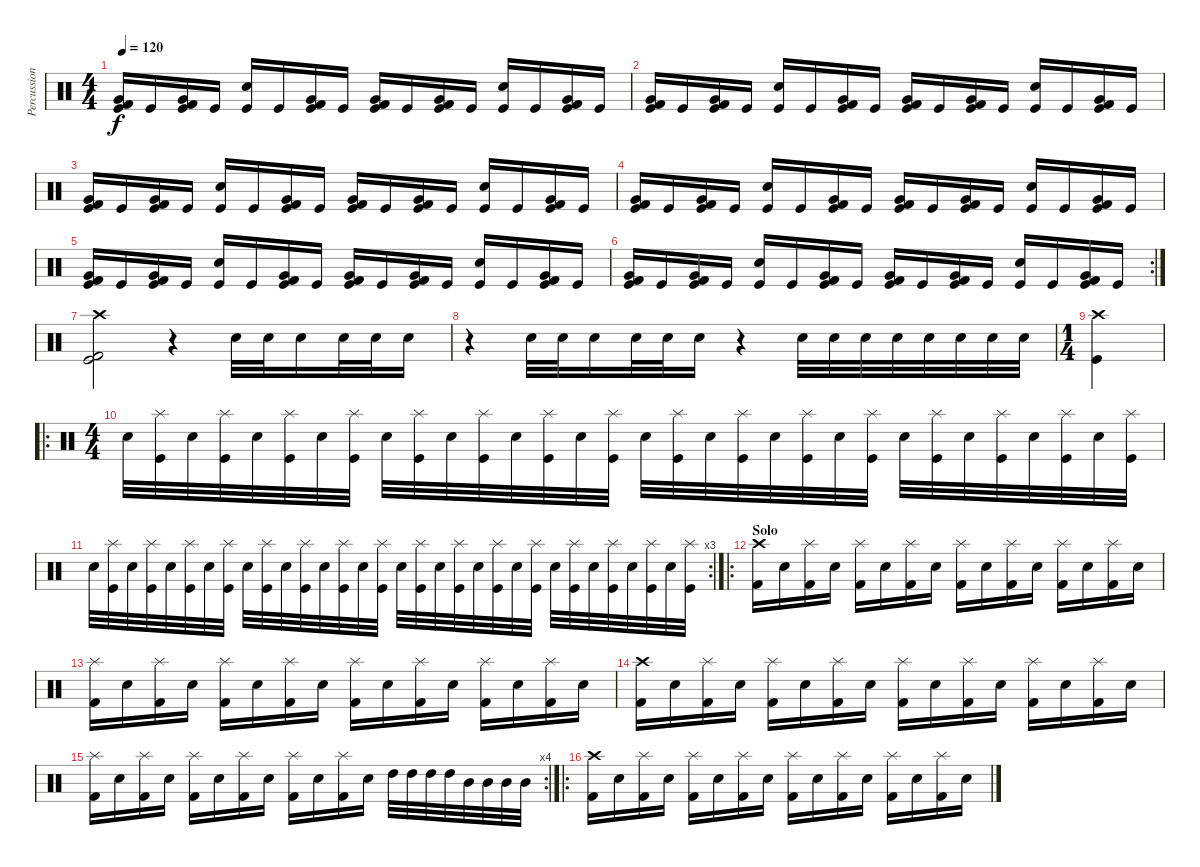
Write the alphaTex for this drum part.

\track ("Percussion" "Percussion") {instrument percussion}
\staff {score}
\articulation defaults
\ts (4 4)
\tempo 120
\clef neutral
\ks c
("Very Low Tom (hit)" "Kick (hit) 2" "Kick (hit)").16{dy f} "Kick (hit)".16 ("Very Low Tom (hit)" "Kick (hit) 2" "Kick (hit)").16 "Kick (hit)".16 ("Electric Snare (hit)" "Kick (hit)").16 "Kick (hit)".16 ("Very Low Tom (hit)" "Kick (hit) 2" "Kick (hit)").16 "Kick (hit)".16 ("Very Low Tom (hit)" "Kick (hit) 2" "Kick (hit)").16 "Kick (hit)".16 ("Very Low Tom (hit)" "Kick (hit) 2" "Kick (hit)").16 "Kick (hit)".16 ("Electric Snare (hit)" "Kick (hit)").16 "Kick (hit)".16 ("Very Low Tom (hit)" "Kick (hit) 2" "Kick (hit)").16 "Kick (hit)".16 |
("Very Low Tom (hit)" "Kick (hit) 2" "Kick (hit)").16 "Kick (hit)".16 ("Very Low Tom (hit)" "Kick (hit) 2" "Kick (hit)").16 "Kick (hit)".16 ("Electric Snare (hit)" "Kick (hit)").16 "Kick (hit)".16 ("Very Low Tom (hit)" "Kick (hit) 2" "Kick (hit)").16 "Kick (hit)".16 ("Very Low Tom (hit)" "Kick (hit) 2" "Kick (hit)").16 "Kick (hit)".16 ("Very Low Tom (hit)" "Kick (hit) 2" "Kick (hit)").16 "Kick (hit)".16 ("Electric Snare (hit)" "Kick (hit)").16 "Kick (hit)".16 ("Very Low Tom (hit)" "Kick (hit) 2" "Kick (hit)").16 "Kick (hit)".16 |
("Very Low Tom (hit)" "Kick (hit) 2" "Kick (hit)").16 "Kick (hit)".16 ("Very Low Tom (hit)" "Kick (hit) 2" "Kick (hit)").16 "Kick (hit)".16 ("Electric Snare (hit)" "Kick (hit)").16 "Kick (hit)".16 ("Very Low Tom (hit)" "Kick (hit) 2" "Kick (hit)").16 "Kick (hit)".16 ("Very Low Tom (hit)" "Kick (hit) 2" "Kick (hit)").16 "Kick (hit)".16 ("Very Low Tom (hit)" "Kick (hit) 2" "Kick (hit)").16 "Kick (hit)".16 ("Electric Snare (hit)" "Kick (hit)").16 "Kick (hit)".16 ("Very Low Tom (hit)" "Kick (hit) 2" "Kick (hit)").16 "Kick (hit)".16 |
("Very Low Tom (hit)" "Kick (hit) 2" "Kick (hit)").16 "Kick (hit)".16 ("Very Low Tom (hit)" "Kick (hit) 2" "Kick (hit)").16 "Kick (hit)".16 ("Electric Snare (hit)" "Kick (hit)").16 "Kick (hit)".16 ("Very Low Tom (hit)" "Kick (hit) 2" "Kick (hit)").16 "Kick (hit)".16 ("Very Low Tom (hit)" "Kick (hit) 2" "Kick (hit)").16 "Kick (hit)".16 ("Very Low Tom (hit)" "Kick (hit) 2" "Kick (hit)").16 "Kick (hit)".16 ("Electric Snare (hit)" "Kick (hit)").16 "Kick (hit)".16 ("Very Low Tom (hit)" "Kick (hit) 2" "Kick (hit)").16 "Kick (hit)".16 |
("Very Low Tom (hit)" "Kick (hit) 2" "Kick (hit)").16 "Kick (hit)".16 ("Very Low Tom (hit)" "Kick (hit) 2" "Kick (hit)").16 "Kick (hit)".16 ("Electric Snare (hit)" "Kick (hit)").16 "Kick (hit)".16 ("Very Low Tom (hit)" "Kick (hit) 2" "Kick (hit)").16 "Kick (hit)".16 ("Very Low Tom (hit)" "Kick (hit) 2" "Kick (hit)").16 "Kick (hit)".16 ("Very Low Tom (hit)" "Kick (hit) 2" "Kick (hit)").16 "Kick (hit)".16 ("Electric Snare (hit)" "Kick (hit)").16 "Kick (hit)".16 ("Very Low Tom (hit)" "Kick (hit) 2" "Kick (hit)").16 "Kick (hit)".16 |
\rc 2
("Very Low Tom (hit)" "Kick (hit) 2" "Kick (hit)").16 "Kick (hit)".16 ("Very Low Tom (hit)" "Kick (hit) 2" "Kick (hit)").16 "Kick (hit)".16 ("Electric Snare (hit)" "Kick (hit)").16 "Kick (hit)".16 ("Very Low Tom (hit)" "Kick (hit) 2" "Kick (hit)").16 "Kick (hit)".16 ("Very Low Tom (hit)" "Kick (hit) 2" "Kick (hit)").16 "Kick (hit)".16 ("Very Low Tom (hit)" "Kick (hit) 2" "Kick (hit)").16 "Kick (hit)".16 ("Electric Snare (hit)" "Kick (hit)").16 "Kick (hit)".16 ("Very Low Tom (hit)" "Kick (hit) 2" "Kick (hit)").16 "Kick (hit)".16 |
("Crash high (hit)" "Kick (hit) 2" "Kick (hit)").2 r.4 "Electric Snare (hit)".32 "Electric Snare (hit)".32 "Electric Snare (hit)".16 "Electric Snare (hit)".32 "Electric Snare (hit)".32 "Electric Snare (hit)".16 |
r.4 "Electric Snare (hit)".32 "Electric Snare (hit)".32 "Electric Snare (hit)".16 "Electric Snare (hit)".32 "Electric Snare (hit)".32 "Electric Snare (hit)".16 r.4 "Electric Snare (hit)".32 "Electric Snare (hit)".32 "Electric Snare (hit)".32 "Electric Snare (hit)".32 "Electric Snare (hit)".32 "Electric Snare (hit)".32 "Electric Snare (hit)".32 "Electric Snare (hit)".32 |
\ts (1 4)
("Crash high (hit)" "Kick (hit)").4 |
\ro
\ts (4 4)
"Electric Snare (hit)".32 ("Splash (hit)" "Kick (hit)").32 "Electric Snare (hit)".32 ("Splash (hit)" "Kick (hit)").32 "Electric Snare (hit)".32 ("Splash (hit)" "Kick (hit)").32 "Electric Snare (hit)".32 ("Splash (hit)" "Kick (hit)").32 "Electric Snare (hit)".32 ("Splash (hit)" "Kick (hit)").32 "Electric Snare (hit)".32 ("Splash (hit)" "Kick (hit)").32 "Electric Snare (hit)".32 ("Splash (hit)" "Kick (hit)").32 "Electric Snare (hit)".32 ("Splash (hit)" "Kick (hit)").32 "Electric Snare (hit)".32 ("Splash (hit)" "Kick (hit)").32 "Electric Snare (hit)".32 ("Splash (hit)" "Kick (hit)").32 "Electric Snare (hit)".32 ("Splash (hit)" "Kick (hit)").32 "Electric Snare (hit)".32 ("Splash (hit)" "Kick (hit)").32 "Electric Snare (hit)".32 ("Splash (hit)" "Kick (hit)").32 "Electric Snare (hit)".32 ("Splash (hit)" "Kick (hit)").32 "Electric Snare (hit)".32 ("Splash (hit)" "Kick (hit)").32 "Electric Snare (hit)".32 ("Splash (hit)" "Kick (hit)").32 |
\rc 3 "Electric Snare (hit)".32
("Splash (hit)" "Kick (hit)").32 "Electric Snare (hit)".32 ("Splash (hit)" "Kick (hit)").32 "Electric Snare (hit)".32 ("Splash (hit)" "Kick (hit)").32 "Electric Snare (hit)".32 ("Splash (hit)" "Kick (hit)").32 "Electric Snare (hit)".32 ("Splash (hit)" "Kick (hit)").32 "Electric Snare (hit)".32 ("Splash (hit)" "Kick (hit)").32 "Electric Snare (hit)".32 ("Splash (hit)" "Kick (hit)").32 "Electric Snare (hit)".32 ("Splash (hit)" "Kick (hit)").32 "Electric Snare (hit)".32 ("Splash (hit)" "Kick (hit)").32 "Electric Snare (hit)".32 ("Splash (hit)" "Kick (hit)").32 "Electric Snare (hit)".32 ("Splash (hit)" "Kick (hit)").32 "Electric Snare (hit)".32 ("Splash (hit)" "Kick (hit)").32 "Electric Snare (hit)".32 ("Splash (hit)" "Kick (hit)").32 "Electric Snare (hit)".32 ("Splash (hit)" "Kick (hit)").32 "Electric Snare (hit)".32 ("Splash (hit)" "Kick (hit)").32 "Electric Snare (hit)".32 ("Splash (hit)" "Kick (hit)").32 |
\ro
\section ("" "Solo")
("Crash high (hit)" "Kick (hit) 2").16 "Electric Snare (hit)".16 ("Splash (hit)" "Kick (hit) 2").16 "Electric Snare (hit)".16 ("Splash (hit)" "Kick (hit) 2").16 "Electric Snare (hit)".16 ("Splash (hit)" "Kick (hit) 2").16 "Electric Snare (hit)".16 ("Splash (hit)" "Kick (hit) 2").16 "Electric Snare (hit)".16 ("Splash (hit)" "Kick (hit) 2").16 "Electric Snare (hit)".16 ("Splash (hit)" "Kick (hit) 2").16 "Electric Snare (hit)".16 ("Splash (hit)" "Kick (hit) 2").16 "Electric Snare (hit)".16 |
("Splash (hit)" "Kick (hit) 2").16 "Electric Snare (hit)".16 ("Splash (hit)" "Kick (hit) 2").16 "Electric Snare (hit)".16 ("Splash (hit)" "Kick (hit) 2").16 "Electric Snare (hit)".16 ("Splash (hit)" "Kick (hit) 2").16 "Electric Snare (hit)".16 ("Splash (hit)" "Kick (hit) 2").16 "Electric Snare (hit)".16 ("Splash (hit)" "Kick (hit) 2").16 "Electric Snare (hit)".16 ("Splash (hit)" "Kick (hit) 2").16 "Electric Snare (hit)".16 ("Splash (hit)" "Kick (hit) 2").16 "Electric Snare (hit)".16 |
("Crash high (hit)" "Kick (hit) 2").16 "Electric Snare (hit)".16 ("Splash (hit)" "Kick (hit) 2").16 "Electric Snare (hit)".16 ("Splash (hit)" "Kick (hit) 2").16 "Electric Snare (hit)".16 ("Splash (hit)" "Kick (hit) 2").16 "Electric Snare (hit)".16 ("Splash (hit)" "Kick (hit) 2").16 "Electric Snare (hit)".16 ("Splash (hit)" "Kick (hit) 2").16 "Electric Snare (hit)".16 ("Splash (hit)" "Kick (hit) 2").16 "Electric Snare (hit)".16 ("Splash (hit)" "Kick (hit) 2").16 "Electric Snare (hit)".16 |
\rc 4
("Splash (hit)" "Kick (hit) 2").16 "Electric Snare (hit)".16 ("Splash (hit)" "Kick (hit) 2").16 "Electric Snare (hit)".16 ("Splash (hit)" "Kick (hit) 2").16 "Electric Snare (hit)".16 ("Splash (hit)" "Kick (hit) 2").16 "Electric Snare (hit)".16 ("Splash (hit)" "Kick (hit) 2").16 "Electric Snare (hit)".16 ("Splash (hit)" "Kick (hit) 2").16 "Electric Snare (hit)".16 "High Tom (hit)".32 "High Tom (hit)".32 "High Tom (hit)".32 "High Tom (hit)".32 "Mid Tom (hit)".32 "Mid Tom (hit)".32 "Mid Tom (hit)".32 "Mid Tom (hit)".32 |
\ro
("Crash high (hit)" "Kick (hit) 2").16 "Electric Snare (hit)".16 ("Splash (hit)" "Kick (hit) 2").16 "Electric Snare (hit)".16 ("Splash (hit)" "Kick (hit) 2").16 "Electric Snare (hit)".16 ("Splash (hit)" "Kick (hit) 2").16 "Electric Snare (hit)".16 ("Splash (hit)" "Kick (hit) 2").16 "Electric Snare (hit)".16 ("Splash (hit)" "Kick (hit) 2").16 "Electric Snare (hit)".16 ("Splash (hit)" "Kick (hit) 2").16 "Electric Snare (hit)".16 ("Splash (hit)" "Kick (hit) 2").16 "Electric Snare (hit)".16
